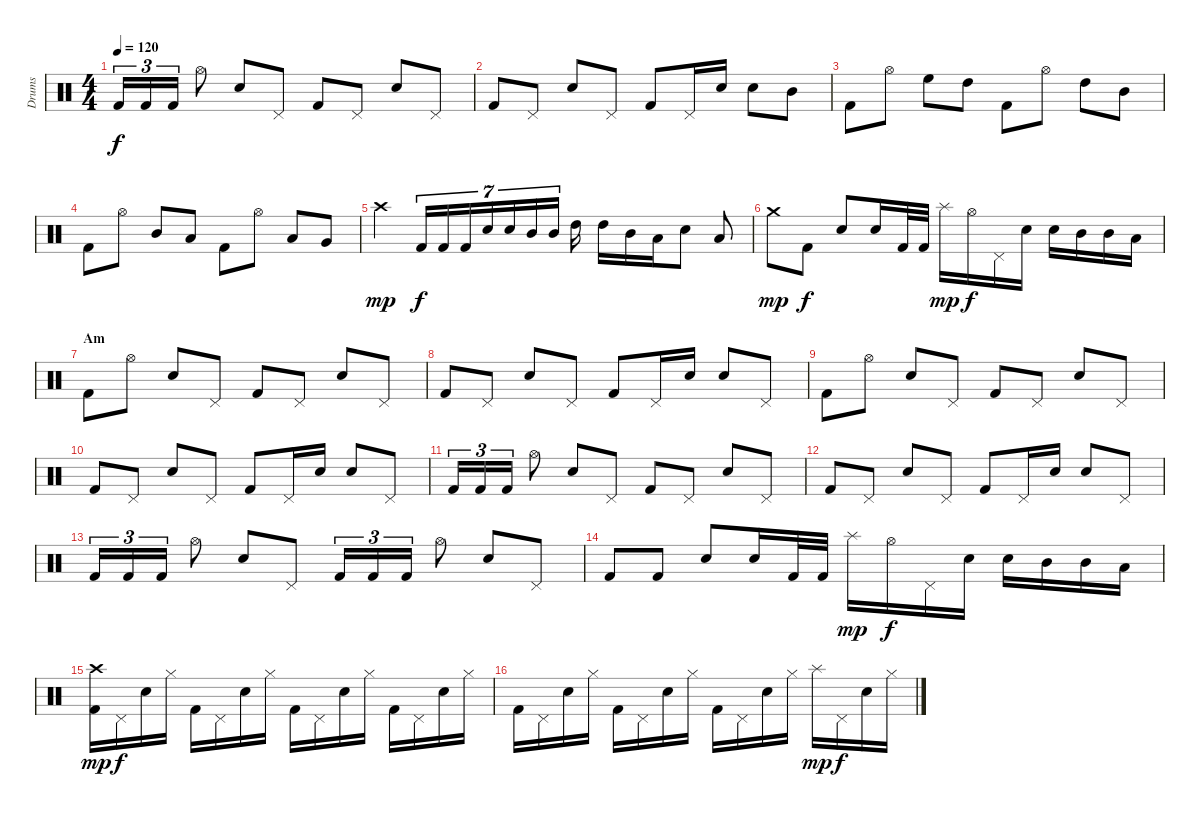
\track ("Drums" "Drums") {instrument percussion}
\staff {score}
\articulation defaults
\ts (4 4)
\tempo 120
\clef neutral
\ks c "Kick (hit) 2".16{tu (3 2) dy f} "Kick (hit) 2".16{tu (3 2)} "Kick (hit) 2".16{tu (3 2)} "Hi-Hat (open)".8 "Electric Snare (hit)".8 "Pedal Hi-Hat (hit)".8 "Kick (hit) 2".8 "Pedal Hi-Hat (hit)".8 "Electric Snare (hit)".8 "Pedal Hi-Hat (hit)".8
|
"Kick (hit) 2".8 "Pedal Hi-Hat (hit)".8 "Electric Snare (hit)".8 "Pedal Hi-Hat (hit)".8 "Kick (hit) 2".8 "Pedal Hi-Hat (hit)".16 "Electric Snare (hit)".16 "Electric Snare (hit)".8 "Mid Tom (hit)".8 |
"Kick (hit) 2".8 "Hi-Hat (open)".8 "High Floor Tom (hit)".8 "High Tom (hit)".8 "Kick (hit) 2".8 "Hi-Hat (open)".8 "High Tom (hit)".8 "Mid Tom (hit)".8 |
"Kick (hit) 2".8 "Hi-Hat (open)".8 "Mid Tom (hit)".8 "Low Tom (hit)".8 "Kick (hit) 2".8 "Hi-Hat (open)".8 "Low Tom (hit)".8 "Very Low Tom (hit)".8 |
"Crash high (hit)".4{dy mp} "Kick (hit) 2".16{tu (7 4) dy f} "Kick (hit) 2".16{tu (7 4)} "Kick (hit) 2".16{tu (7 4)} "Electric Snare (hit)".16{tu (7 4)} "Electric Snare (hit)".16{tu (7 4)} "Mid Tom (hit)".16{tu (7 4)} "Mid Tom (hit)".16{tu (7 4)} "High Tom (hit)".16 "High Tom (hit)".16 "Mid Tom (hit)".16 "Low Tom (hit)".16 "Electric Snare (hit)".8 "Low Tom (hit)".8 |
"Crash medium (hit)".8{dy mp} "Kick (hit) 2".8{dy f} "Electric Snare (hit)".8 "Electric Snare (hit)".16 "Kick (hit) 2".32 "Kick (hit) 2".32 "Splash (hit)".16{dy mp} "Hi-Hat (open)".16{dy f} "Pedal Hi-Hat (hit)".16 "Electric Snare (hit)".16 "Electric Snare (hit)".16 "Mid Tom (hit)".16 "Mid Tom (hit)".16 "Low Tom (hit)".16 |
\section ("" "Am")
"Kick (hit) 2".8 "Hi-Hat (open)".8 "Electric Snare (hit)".8 "Pedal Hi-Hat (hit)".8 "Kick (hit) 2".8 "Pedal Hi-Hat (hit)".8 "Electric Snare (hit)".8 "Pedal Hi-Hat (hit)".8 |
"Kick (hit) 2".8 "Pedal Hi-Hat (hit)".8 "Electric Snare (hit)".8 "Pedal Hi-Hat (hit)".8 "Kick (hit) 2".8 "Pedal Hi-Hat (hit)".16 "Electric Snare (hit)".16 "Electric Snare (hit)".8 "Pedal Hi-Hat (hit)".8 |
"Kick (hit) 2".8 "Hi-Hat (open)".8 "Electric Snare (hit)".8 "Pedal Hi-Hat (hit)".8 "Kick (hit) 2".8 "Pedal Hi-Hat (hit)".8 "Electric Snare (hit)".8 "Pedal Hi-Hat (hit)".8 |
"Kick (hit) 2".8 "Pedal Hi-Hat (hit)".8 "Electric Snare (hit)".8 "Pedal Hi-Hat (hit)".8 "Kick (hit) 2".8 "Pedal Hi-Hat (hit)".16 "Electric Snare (hit)".16 "Electric Snare (hit)".8 "Pedal Hi-Hat (hit)".8 |
"Kick (hit) 2".16{tu (3 2)} "Kick (hit) 2".16{tu (3 2)} "Kick (hit) 2".16{tu (3 2)} "Hi-Hat (open)".8 "Electric Snare (hit)".8 "Pedal Hi-Hat (hit)".8 "Kick (hit) 2".8 "Pedal Hi-Hat (hit)".8 "Electric Snare (hit)".8 "Pedal Hi-Hat (hit)".8 |
"Kick (hit) 2".8 "Pedal Hi-Hat (hit)".8 "Electric Snare (hit)".8 "Pedal Hi-Hat (hit)".8 "Kick (hit) 2".8 "Pedal Hi-Hat (hit)".16 "Electric Snare (hit)".16 "Electric Snare (hit)".8 "Pedal Hi-Hat (hit)".8 |
"Kick (hit) 2".16{tu (3 2)} "Kick (hit) 2".16{tu (3 2)} "Kick (hit) 2".16{tu (3 2)} "Hi-Hat (open)".8 "Electric Snare (hit)".8 "Pedal Hi-Hat (hit)".8 "Kick (hit) 2".16{tu (3 2)} "Kick (hit) 2".16{tu (3 2)} "Kick (hit) 2".16{tu (3 2)} "Hi-Hat (open)".8 "Electric Snare (hit)".8 "Pedal Hi-Hat (hit)".8 |
"Kick (hit) 2".8 "Kick (hit) 2".8 "Electric Snare (hit)".8 "Electric Snare (hit)".16 "Kick (hit) 2".32 "Kick (hit) 2".32 "Splash (hit)".16{dy mp} "Hi-Hat (open)".16{dy f} "Pedal Hi-Hat (hit)".16 "Electric Snare (hit)".16 "Electric Snare (hit)".16 "Mid Tom (hit)".16 "Mid Tom (hit)".16 "Low Tom (hit)".16 |
("Kick (hit) 2" "Crash high (hit)").16{dy mp} "Pedal Hi-Hat (hit)".16{dy f} "Electric Snare (hit)".16 "Hi-Hat (closed)".16 "Kick (hit) 2".16 "Pedal Hi-Hat (hit)".16 "Electric Snare (hit)".16 "Hi-Hat (closed)".16 "Kick (hit) 2".16 "Pedal Hi-Hat (hit)".16 "Electric Snare (hit)".16 "Hi-Hat (closed)".16 "Kick (hit) 2".16 "Pedal Hi-Hat (hit)".16 "Electric Snare (hit)".16 "Hi-Hat (closed)".16 |
"Kick (hit) 2".16 "Pedal Hi-Hat (hit)".16 "Electric Snare (hit)".16 "Hi-Hat (closed)".16 "Kick (hit) 2".16 "Pedal Hi-Hat (hit)".16 "Electric Snare (hit)".16 "Hi-Hat (closed)".16 "Kick (hit) 2".16 "Pedal Hi-Hat (hit)".16 "Electric Snare (hit)".16 "Hi-Hat (closed)".16 "Splash (hit)".16{dy mp} "Pedal Hi-Hat (hit)".16{dy f} "Electric Snare (hit)".16 "Hi-Hat (closed)".16
